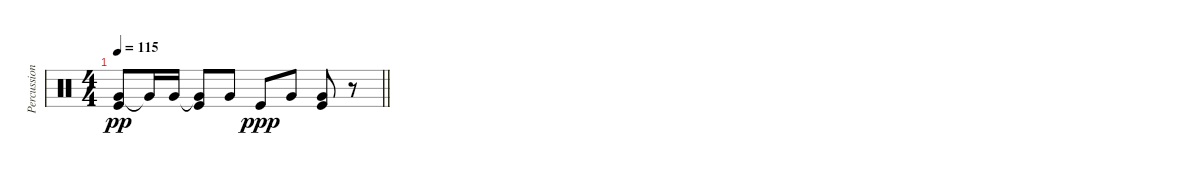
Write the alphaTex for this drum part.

\track ("Percussion" "Percussion") {instrument percussion}
\staff {score}
\articulation defaults
\ts (4 4)
\tempo 115
\clef neutral
\barLineRight lightlight
\ks c
("Very Low Tom (hit)" "Kick (hit)").8{dy pp} "Very Low Tom (hit)"{t}.16 "Very Low Tom (hit)".16 ("Very Low Tom (hit)"{t} "Kick (hit)").8 "Very Low Tom (hit)".8 "Kick (hit)".8{dy ppp} "Very Low Tom (hit)".8 ("Very Low Tom (hit)" "Kick (hit)").8 r.8
